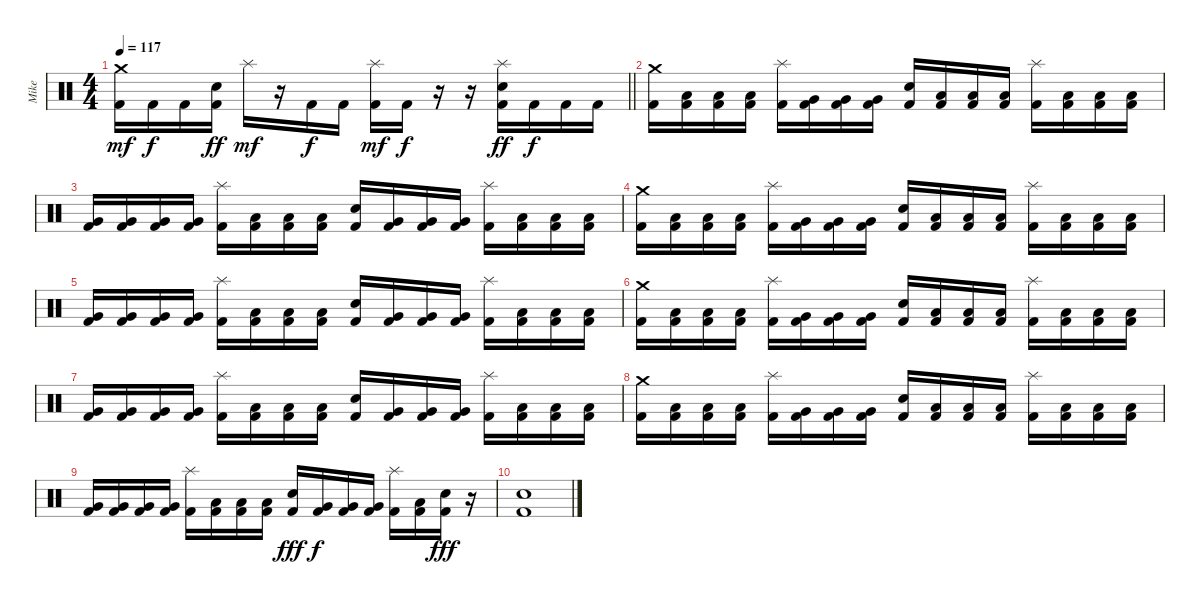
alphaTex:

\track ("Mike" "Mike") {instrument percussion}
\staff {score}
\articulation defaults
\ts (4 4)
\tempo 117
\clef neutral
\barLineRight lightlight
\ks c
("Crash medium (hit)" "Kick (hit) 2").16{dy mf} "Kick (hit) 2".16{dy f} "Kick (hit) 2".16 ("Snare (hit) 2" "Kick (hit) 2").16{dy ff} "Splash (hit)".16{dy mf} r.16 "Kick (hit) 2".16{dy f} "Kick (hit) 2".16 ("Splash (hit)" "Kick (hit) 2").16{dy mf} "Kick (hit) 2".16{dy f} r.16 r.16 ("Splash (hit)" "Snare (hit) 2" "Kick (hit) 2").16{dy ff} "Kick (hit) 2".16{dy f} "Kick (hit) 2".16 "Kick (hit) 2".16 |
("Crash medium (hit)" "Kick (hit) 2").16 ("Low Tom (hit)" "Kick (hit) 2").16 ("Low Tom (hit)" "Kick (hit) 2").16 ("Low Tom (hit)" "Kick (hit) 2").16 ("Splash (hit)" "Kick (hit) 2").16 ("Very Low Tom (hit)" "Kick (hit) 2").16 ("Very Low Tom (hit)" "Kick (hit) 2").16 ("Very Low Tom (hit)" "Kick (hit) 2").16 ("Snare (hit) 2" "Kick (hit) 2").16 ("Low Floor Tom (hit)" "Kick (hit) 2").16 ("Low Floor Tom (hit)" "Kick (hit) 2").16 ("Low Floor Tom (hit)" "Kick (hit) 2").16 ("Splash (hit)" "Kick (hit) 2").16 ("Low Tom (hit)" "Kick (hit) 2").16 ("Low Tom (hit)" "Kick (hit) 2").16 ("Low Tom (hit)" "Kick (hit) 2").16 |
("Very Low Tom (hit)" "Kick (hit) 2").16 ("Very Low Tom (hit)" "Kick (hit) 2").16 ("Very Low Tom (hit)" "Kick (hit) 2").16 ("Very Low Tom (hit)" "Kick (hit) 2").16 ("Splash (hit)" "Kick (hit) 2").16 ("Low Tom (hit)" "Kick (hit) 2").16 ("Low Tom (hit)" "Kick (hit) 2").16 ("Low Tom (hit)" "Kick (hit) 2").16 ("Snare (hit) 2" "Kick (hit) 2").16 ("Very Low Tom (hit)" "Kick (hit) 2").16 ("Very Low Tom (hit)" "Kick (hit) 2").16 ("Very Low Tom (hit)" "Kick (hit) 2").16 ("Splash (hit)" "Kick (hit) 2").16 ("Low Floor Tom (hit)" "Kick (hit) 2").16 ("Low Floor Tom (hit)" "Kick (hit) 2").16 ("Low Floor Tom (hit)" "Kick (hit) 2").16 |
("Crash medium (hit)" "Kick (hit) 2").16 ("Low Tom (hit)" "Kick (hit) 2").16 ("Low Tom (hit)" "Kick (hit) 2").16 ("Low Tom (hit)" "Kick (hit) 2").16 ("Splash (hit)" "Kick (hit) 2").16 ("Very Low Tom (hit)" "Kick (hit) 2").16 ("Very Low Tom (hit)" "Kick (hit) 2").16 ("Very Low Tom (hit)" "Kick (hit) 2").16 ("Snare (hit) 2" "Kick (hit) 2").16 ("Low Floor Tom (hit)" "Kick (hit) 2").16 ("Low Floor Tom (hit)" "Kick (hit) 2").16 ("Low Floor Tom (hit)" "Kick (hit) 2").16 ("Splash (hit)" "Kick (hit) 2").16 ("Low Tom (hit)" "Kick (hit) 2").16 ("Low Tom (hit)" "Kick (hit) 2").16 ("Low Tom (hit)" "Kick (hit) 2").16 |
("Very Low Tom (hit)" "Kick (hit) 2").16 ("Very Low Tom (hit)" "Kick (hit) 2").16 ("Very Low Tom (hit)" "Kick (hit) 2").16 ("Very Low Tom (hit)" "Kick (hit) 2").16 ("Splash (hit)" "Kick (hit) 2").16 ("Low Tom (hit)" "Kick (hit) 2").16 ("Low Tom (hit)" "Kick (hit) 2").16 ("Low Tom (hit)" "Kick (hit) 2").16 ("Snare (hit) 2" "Kick (hit) 2").16 ("Very Low Tom (hit)" "Kick (hit) 2").16 ("Very Low Tom (hit)" "Kick (hit) 2").16 ("Very Low Tom (hit)" "Kick (hit) 2").16 ("Splash (hit)" "Kick (hit) 2").16 ("Low Floor Tom (hit)" "Kick (hit) 2").16 ("Low Floor Tom (hit)" "Kick (hit) 2").16 ("Low Floor Tom (hit)" "Kick (hit) 2").16 |
("Crash medium (hit)" "Kick (hit) 2").16 ("Low Tom (hit)" "Kick (hit) 2").16 ("Low Tom (hit)" "Kick (hit) 2").16 ("Low Tom (hit)" "Kick (hit) 2").16 ("Splash (hit)" "Kick (hit) 2").16 ("Very Low Tom (hit)" "Kick (hit) 2").16 ("Very Low Tom (hit)" "Kick (hit) 2").16 ("Very Low Tom (hit)" "Kick (hit) 2").16 ("Snare (hit) 2" "Kick (hit) 2").16 ("Low Floor Tom (hit)" "Kick (hit) 2").16 ("Low Floor Tom (hit)" "Kick (hit) 2").16 ("Low Floor Tom (hit)" "Kick (hit) 2").16 ("Splash (hit)" "Kick (hit) 2").16 ("Low Tom (hit)" "Kick (hit) 2").16 ("Low Tom (hit)" "Kick (hit) 2").16 ("Low Tom (hit)" "Kick (hit) 2").16 |
("Very Low Tom (hit)" "Kick (hit) 2").16 ("Very Low Tom (hit)" "Kick (hit) 2").16 ("Very Low Tom (hit)" "Kick (hit) 2").16 ("Very Low Tom (hit)" "Kick (hit) 2").16 ("Splash (hit)" "Kick (hit) 2").16 ("Low Tom (hit)" "Kick (hit) 2").16 ("Low Tom (hit)" "Kick (hit) 2").16 ("Low Tom (hit)" "Kick (hit) 2").16 ("Snare (hit) 2" "Kick (hit) 2").16 ("Very Low Tom (hit)" "Kick (hit) 2").16 ("Very Low Tom (hit)" "Kick (hit) 2").16 ("Very Low Tom (hit)" "Kick (hit) 2").16 ("Splash (hit)" "Kick (hit) 2").16 ("Low Floor Tom (hit)" "Kick (hit) 2").16 ("Low Floor Tom (hit)" "Kick (hit) 2").16 ("Low Floor Tom (hit)" "Kick (hit) 2").16 |
("Crash medium (hit)" "Kick (hit) 2").16 ("Low Tom (hit)" "Kick (hit) 2").16 ("Low Tom (hit)" "Kick (hit) 2").16 ("Low Tom (hit)" "Kick (hit) 2").16 ("Splash (hit)" "Kick (hit) 2").16 ("Very Low Tom (hit)" "Kick (hit) 2").16 ("Very Low Tom (hit)" "Kick (hit) 2").16 ("Very Low Tom (hit)" "Kick (hit) 2").16 ("Snare (hit) 2" "Kick (hit) 2").16 ("Low Floor Tom (hit)" "Kick (hit) 2").16 ("Low Floor Tom (hit)" "Kick (hit) 2").16 ("Low Floor Tom (hit)" "Kick (hit) 2").16 ("Splash (hit)" "Kick (hit) 2").16 ("Low Tom (hit)" "Kick (hit) 2").16 ("Low Tom (hit)" "Kick (hit) 2").16 ("Low Tom (hit)" "Kick (hit) 2").16 |
("Very Low Tom (hit)" "Kick (hit) 2").16 ("Very Low Tom (hit)" "Kick (hit) 2").16 ("Very Low Tom (hit)" "Kick (hit) 2").16 ("Very Low Tom (hit)" "Kick (hit) 2").16 ("Splash (hit)" "Kick (hit) 2").16 ("Low Tom (hit)" "Kick (hit) 2").16 ("Low Tom (hit)" "Kick (hit) 2").16 ("Low Tom (hit)" "Kick (hit) 2").16 ("Snare (hit) 2" "Kick (hit) 2").16{dy fff} ("Very Low Tom (hit)" "Kick (hit) 2").16{dy f} ("Very Low Tom (hit)" "Kick (hit) 2").16 ("Very Low Tom (hit)" "Kick (hit) 2").16 ("Splash (hit)" "Kick (hit) 2").16 ("Low Floor Tom (hit)" "Kick (hit) 2").16 ("Snare (hit) 2" "Kick (hit) 2").16{dy fff} r.16 |
("Snare (hit) 2" "Kick (hit) 2").1
